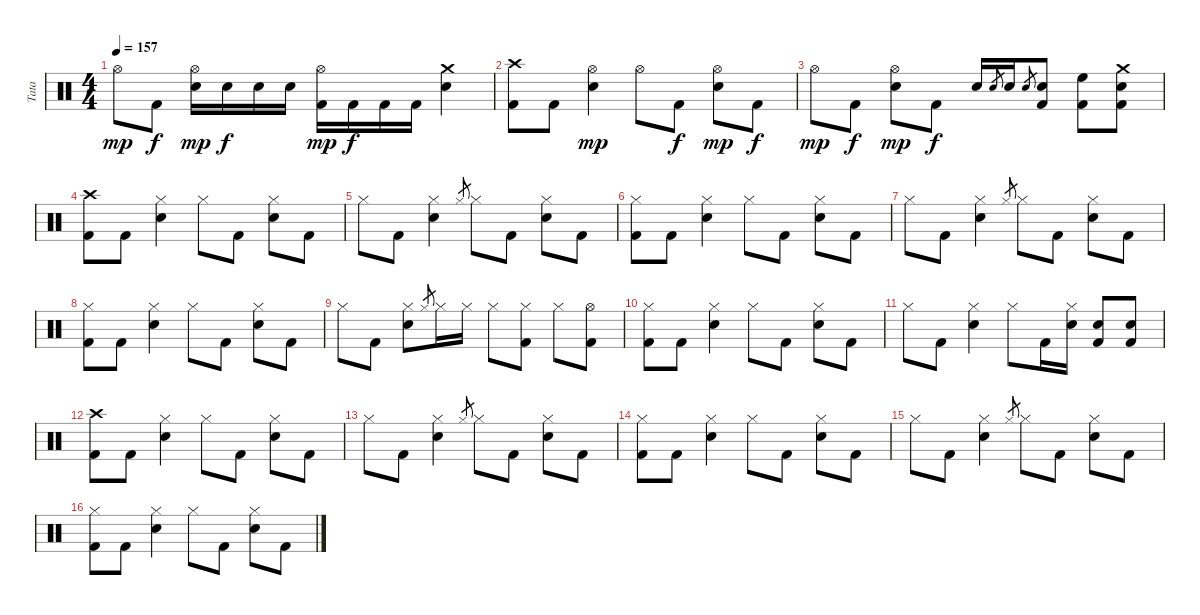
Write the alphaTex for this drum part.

\track ("Tata" "Tata") {instrument percussion}
\staff {score}
\articulation defaults
\ts (4 4)
\tempo 157
\clef neutral
\ks c "Hi-Hat (open)".8{dy mp} "Kick (hit) 2".8{dy f}
("Electric Snare (hit)" "Hi-Hat (open)").16{dy mp} "Electric Snare (hit)".16{dy f} "Electric Snare (hit)".16 "Electric Snare (hit)".16 ("Kick (hit) 2" "Hi-Hat (open)").16{dy mp} "Kick (hit) 2".16{dy f} "Kick (hit) 2".16 "Kick (hit) 2".16 ("Electric Snare (hit)" "Crash medium (hit)").4 |
("Kick (hit) 2" "Crash high (hit)").8 "Kick (hit) 2".8 ("Electric Snare (hit)" "Hi-Hat (open)").4{dy mp} "Hi-Hat (open)".8 "Kick (hit) 2".8{dy f} ("Electric Snare (hit)" "Hi-Hat (open)").8{dy mp} "Kick (hit) 2".8{dy f} |
"Hi-Hat (open)".8{dy mp} "Kick (hit) 2".8{dy f} ("Electric Snare (hit)" "Hi-Hat (open)").8{dy mp} "Kick (hit) 2".8{dy f} "Electric Snare (hit)".16 "Electric Snare (hit)".8{gr} "Electric Snare (hit)".16 "Electric Snare (hit)".8{gr} ("Kick (hit) 2" "Electric Snare (hit)").8 ("Kick (hit) 2" "High Floor Tom (hit)").8 ("Kick (hit) 2" "Electric Snare (hit)" "Crash medium (hit)").8 |
("Kick (hit) 2" "Crash high (hit)").8 "Kick (hit) 2".8 ("Electric Snare (hit)" "Hi-Hat (closed)").4 "Hi-Hat (closed)".8 "Kick (hit) 2".8 ("Electric Snare (hit)" "Hi-Hat (closed)").8 "Kick (hit) 2".8 |
"Hi-Hat (closed)".8 "Kick (hit) 2".8 ("Electric Snare (hit)" "Hi-Hat (closed)").4 "Hi-Hat (closed)".8{gr} "Hi-Hat (closed)".8 "Kick (hit) 2".8 ("Electric Snare (hit)" "Hi-Hat (closed)").8 "Kick (hit) 2".8 |
("Kick (hit) 2" "Hi-Hat (closed)").8 "Kick (hit) 2".8 ("Electric Snare (hit)" "Hi-Hat (closed)").4 "Hi-Hat (closed)".8 "Kick (hit) 2".8 ("Electric Snare (hit)" "Hi-Hat (closed)").8 "Kick (hit) 2".8 |
"Hi-Hat (closed)".8 "Kick (hit) 2".8 ("Electric Snare (hit)" "Hi-Hat (closed)").4 "Hi-Hat (closed)".8{gr} "Hi-Hat (closed)".8 "Kick (hit) 2".8 ("Electric Snare (hit)" "Hi-Hat (closed)").8 "Kick (hit) 2".8 |
("Kick (hit) 2" "Hi-Hat (closed)").8 "Kick (hit) 2".8 ("Electric Snare (hit)" "Hi-Hat (closed)").4 "Hi-Hat (closed)".8 "Kick (hit) 2".8 ("Electric Snare (hit)" "Hi-Hat (closed)").8 "Kick (hit) 2".8 |
"Hi-Hat (closed)".8 "Kick (hit) 2".8 ("Electric Snare (hit)" "Hi-Hat (closed)").8 "Hi-Hat (closed)".8{gr} "Hi-Hat (closed)".16 "Hi-Hat (closed)".16 "Hi-Hat (closed)".8 ("Kick (hit) 2" "Hi-Hat (closed)").8 "Hi-Hat (closed)".8 ("Kick (hit) 2" "Hi-Hat (open)").8 |
("Kick (hit) 2" "Hi-Hat (closed)").8 "Kick (hit) 2".8 ("Electric Snare (hit)" "Hi-Hat (closed)").4 "Hi-Hat (closed)".8 "Kick (hit) 2".8 ("Electric Snare (hit)" "Hi-Hat (closed)").8 "Kick (hit) 2".8 |
"Hi-Hat (closed)".8 "Kick (hit) 2".8 ("Electric Snare (hit)" "Hi-Hat (closed)").4 "Hi-Hat (closed)".8 "Kick (hit) 2".16 ("Electric Snare (hit)" "Hi-Hat (closed)").16 ("Kick (hit) 2" "Electric Snare (hit)").8 ("Kick (hit) 2" "Electric Snare (hit)").8 |
("Kick (hit) 2" "Crash high (hit)").8 "Kick (hit) 2".8 ("Electric Snare (hit)" "Hi-Hat (closed)").4 "Hi-Hat (closed)".8 "Kick (hit) 2".8 ("Electric Snare (hit)" "Hi-Hat (closed)").8 "Kick (hit) 2".8 |
"Hi-Hat (closed)".8 "Kick (hit) 2".8 ("Electric Snare (hit)" "Hi-Hat (closed)").4 "Hi-Hat (closed)".8{gr} "Hi-Hat (closed)".8 "Kick (hit) 2".8 ("Electric Snare (hit)" "Hi-Hat (closed)").8 "Kick (hit) 2".8 |
("Kick (hit) 2" "Hi-Hat (closed)").8 "Kick (hit) 2".8 ("Electric Snare (hit)" "Hi-Hat (closed)").4 "Hi-Hat (closed)".8 "Kick (hit) 2".8 ("Electric Snare (hit)" "Hi-Hat (closed)").8 "Kick (hit) 2".8 |
"Hi-Hat (closed)".8 "Kick (hit) 2".8 ("Electric Snare (hit)" "Hi-Hat (closed)").4 "Hi-Hat (closed)".8{gr} "Hi-Hat (closed)".8 "Kick (hit) 2".8 ("Electric Snare (hit)" "Hi-Hat (closed)").8 "Kick (hit) 2".8 |
("Kick (hit) 2" "Hi-Hat (closed)").8 "Kick (hit) 2".8 ("Electric Snare (hit)" "Hi-Hat (closed)").4 "Hi-Hat (closed)".8 "Kick (hit) 2".8 ("Electric Snare (hit)" "Hi-Hat (closed)").8 "Kick (hit) 2".8
